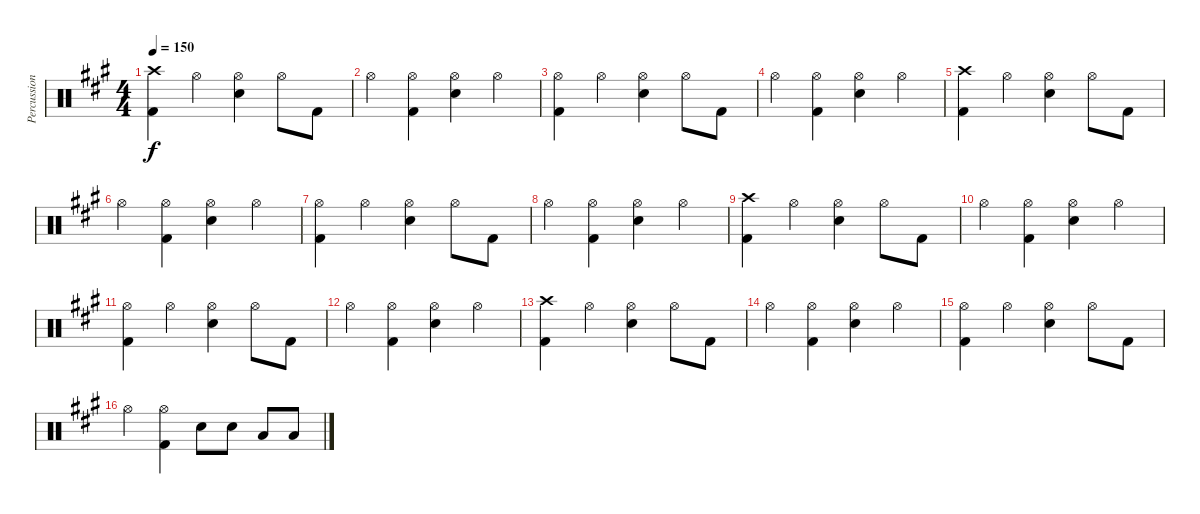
\track ("Percussion" "Percussion") {instrument percussion}
\staff {score}
\articulation defaults
\ts (4 4)
\tempo 150
\clef neutral
\ks a
("Kick (hit) 2" "Crash high (hit)").4{dy f} "Hi-Hat (open)".4 ("Snare (hit) 2" "Hi-Hat (open)").4 "Hi-Hat (open)".8 "Kick (hit) 2".8 |
"Hi-Hat (open)".4 ("Kick (hit) 2" "Hi-Hat (open)").4 ("Snare (hit) 2" "Hi-Hat (open)").4 "Hi-Hat (open)".4 |
("Kick (hit) 2" "Hi-Hat (open)").4 "Hi-Hat (open)".4 ("Snare (hit) 2" "Hi-Hat (open)").4 "Hi-Hat (open)".8 "Kick (hit) 2".8 |
"Hi-Hat (open)".4 ("Kick (hit) 2" "Hi-Hat (open)").4 ("Snare (hit) 2" "Hi-Hat (open)").4 "Hi-Hat (open)".4 |
("Kick (hit) 2" "Crash high (hit)").4 "Hi-Hat (open)".4 ("Snare (hit) 2" "Hi-Hat (open)").4 "Hi-Hat (open)".8 "Kick (hit) 2".8 |
"Hi-Hat (open)".4 ("Kick (hit) 2" "Hi-Hat (open)").4 ("Snare (hit) 2" "Hi-Hat (open)").4 "Hi-Hat (open)".4 |
("Kick (hit) 2" "Hi-Hat (open)").4 "Hi-Hat (open)".4 ("Snare (hit) 2" "Hi-Hat (open)").4 "Hi-Hat (open)".8 "Kick (hit) 2".8 |
"Hi-Hat (open)".4 ("Kick (hit) 2" "Hi-Hat (open)").4 ("Snare (hit) 2" "Hi-Hat (open)").4 "Hi-Hat (open)".4 |
("Kick (hit) 2" "Crash high (hit)").4 "Hi-Hat (open)".4 ("Snare (hit) 2" "Hi-Hat (open)").4 "Hi-Hat (open)".8 "Kick (hit) 2".8 |
"Hi-Hat (open)".4 ("Kick (hit) 2" "Hi-Hat (open)").4 ("Snare (hit) 2" "Hi-Hat (open)").4 "Hi-Hat (open)".4 |
("Kick (hit) 2" "Hi-Hat (open)").4 "Hi-Hat (open)".4 ("Snare (hit) 2" "Hi-Hat (open)").4 "Hi-Hat (open)".8 "Kick (hit) 2".8 |
"Hi-Hat (open)".4 ("Kick (hit) 2" "Hi-Hat (open)").4 ("Snare (hit) 2" "Hi-Hat (open)").4 "Hi-Hat (open)".4 |
("Kick (hit) 2" "Crash high (hit)").4 "Hi-Hat (open)".4 ("Snare (hit) 2" "Hi-Hat (open)").4 "Hi-Hat (open)".8 "Kick (hit) 2".8 |
"Hi-Hat (open)".4 ("Kick (hit) 2" "Hi-Hat (open)").4 ("Snare (hit) 2" "Hi-Hat (open)").4 "Hi-Hat (open)".4 |
("Kick (hit) 2" "Hi-Hat (open)").4 "Hi-Hat (open)".4 ("Snare (hit) 2" "Hi-Hat (open)").4 "Hi-Hat (open)".8 "Kick (hit) 2".8 |
"Hi-Hat (open)".4 ("Kick (hit) 2" "Hi-Hat (open)").4 "Snare (hit) 2".8 "Snare (hit) 2".8 "Low Tom (hit)".8 "Low Tom (hit)".8
